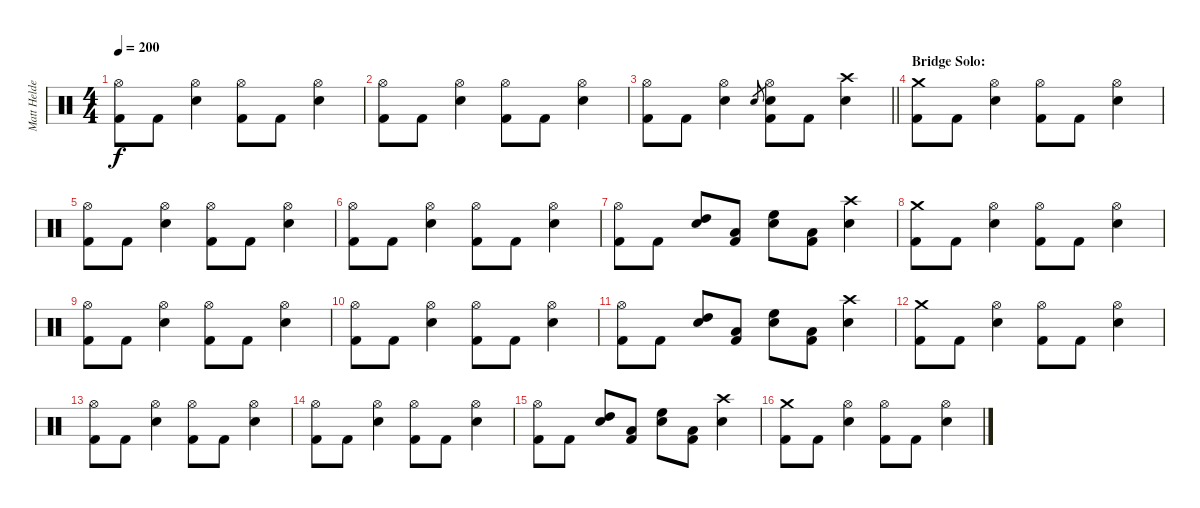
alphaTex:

\track ("Matt Helders (Drums/Percussion)" "Matt Helde") {instrument percussion}
\staff {score}
\articulation defaults
\ts (4 4)
\tempo 200
\clef neutral
\ks c
("Hi-Hat (open)" "Kick (hit) 2").8{dy f} "Kick (hit) 2".8 ("Hi-Hat (open)" "Snare (hit) 2").4 ("Hi-Hat (open)" "Kick (hit) 2").8 "Kick (hit) 2".8 ("Hi-Hat (open)" "Snare (hit) 2").4 |
("Hi-Hat (open)" "Kick (hit) 2").8 "Kick (hit) 2".8 ("Hi-Hat (open)" "Snare (hit) 2").4 ("Hi-Hat (open)" "Kick (hit) 2").8 "Kick (hit) 2".8 ("Hi-Hat (open)" "Snare (hit) 2").4 |
\barLineRight lightlight
("Hi-Hat (open)" "Kick (hit) 2").8 "Kick (hit) 2".8 ("Hi-Hat (open)" "Snare (hit) 2").4 "Snare (hit) 2".8{gr} ("Hi-Hat (open)" "Snare (hit) 2" "Kick (hit) 2").8 "Kick (hit) 2".8 ("Crash high (hit)" "Snare (hit) 2").4 |
\section ("" "Bridge Solo:")
("Crash medium (hit)" "Kick (hit) 2").8 "Kick (hit) 2".8 ("Hi-Hat (open)" "Snare (hit) 2").4 ("Hi-Hat (open)" "Kick (hit) 2").8 "Kick (hit) 2".8 ("Hi-Hat (open)" "Snare (hit) 2").4 |
("Hi-Hat (open)" "Kick (hit) 2").8 "Kick (hit) 2".8 ("Hi-Hat (open)" "Snare (hit) 2").4 ("Hi-Hat (open)" "Kick (hit) 2").8 "Kick (hit) 2".8 ("Hi-Hat (open)" "Snare (hit) 2").4 |
("Hi-Hat (open)" "Kick (hit) 2").8 "Kick (hit) 2".8 ("Hi-Hat (open)" "Snare (hit) 2").4 ("Hi-Hat (open)" "Kick (hit) 2").8 "Kick (hit) 2".8 ("Hi-Hat (open)" "Snare (hit) 2").4 |
("Hi-Hat (open)" "Kick (hit) 2").8 "Kick (hit) 2".8 ("Snare (hit) 2" "High Tom (hit)").8 ("Low Tom (hit)" "Kick (hit) 2").8 ("Snare (hit) 2" "High Floor Tom (hit)").8 ("Low Tom (hit)" "Kick (hit) 2").8 ("Crash high (hit)" "Snare (hit) 2").4 |
("Crash medium (hit)" "Kick (hit) 2").8 "Kick (hit) 2".8 ("Hi-Hat (open)" "Snare (hit) 2").4 ("Hi-Hat (open)" "Kick (hit) 2").8 "Kick (hit) 2".8 ("Hi-Hat (open)" "Snare (hit) 2").4 |
("Hi-Hat (open)" "Kick (hit) 2").8 "Kick (hit) 2".8 ("Hi-Hat (open)" "Snare (hit) 2").4 ("Hi-Hat (open)" "Kick (hit) 2").8 "Kick (hit) 2".8 ("Hi-Hat (open)" "Snare (hit) 2").4 |
("Hi-Hat (open)" "Kick (hit) 2").8 "Kick (hit) 2".8 ("Hi-Hat (open)" "Snare (hit) 2").4 ("Hi-Hat (open)" "Kick (hit) 2").8 "Kick (hit) 2".8 ("Hi-Hat (open)" "Snare (hit) 2").4 |
("Hi-Hat (open)" "Kick (hit) 2").8 "Kick (hit) 2".8 ("Snare (hit) 2" "High Tom (hit)").8 ("Low Tom (hit)" "Kick (hit) 2").8 ("Snare (hit) 2" "High Floor Tom (hit)").8 ("Low Tom (hit)" "Kick (hit) 2").8 ("Crash high (hit)" "Snare (hit) 2").4 |
("Crash medium (hit)" "Kick (hit) 2").8 "Kick (hit) 2".8 ("Hi-Hat (open)" "Snare (hit) 2").4 ("Hi-Hat (open)" "Kick (hit) 2").8 "Kick (hit) 2".8 ("Hi-Hat (open)" "Snare (hit) 2").4 |
("Hi-Hat (open)" "Kick (hit) 2").8 "Kick (hit) 2".8 ("Hi-Hat (open)" "Snare (hit) 2").4 ("Hi-Hat (open)" "Kick (hit) 2").8 "Kick (hit) 2".8 ("Hi-Hat (open)" "Snare (hit) 2").4 |
("Hi-Hat (open)" "Kick (hit) 2").8 "Kick (hit) 2".8 ("Hi-Hat (open)" "Snare (hit) 2").4 ("Hi-Hat (open)" "Kick (hit) 2").8 "Kick (hit) 2".8 ("Hi-Hat (open)" "Snare (hit) 2").4 |
("Hi-Hat (open)" "Kick (hit) 2").8 "Kick (hit) 2".8 ("Snare (hit) 2" "High Tom (hit)").8 ("Low Tom (hit)" "Kick (hit) 2").8 ("Snare (hit) 2" "High Floor Tom (hit)").8 ("Low Tom (hit)" "Kick (hit) 2").8 ("Crash high (hit)" "Snare (hit) 2").4 |
("Crash medium (hit)" "Kick (hit) 2").8 "Kick (hit) 2".8 ("Hi-Hat (open)" "Snare (hit) 2").4 ("Hi-Hat (open)" "Kick (hit) 2").8 "Kick (hit) 2".8 ("Hi-Hat (open)" "Snare (hit) 2").4
